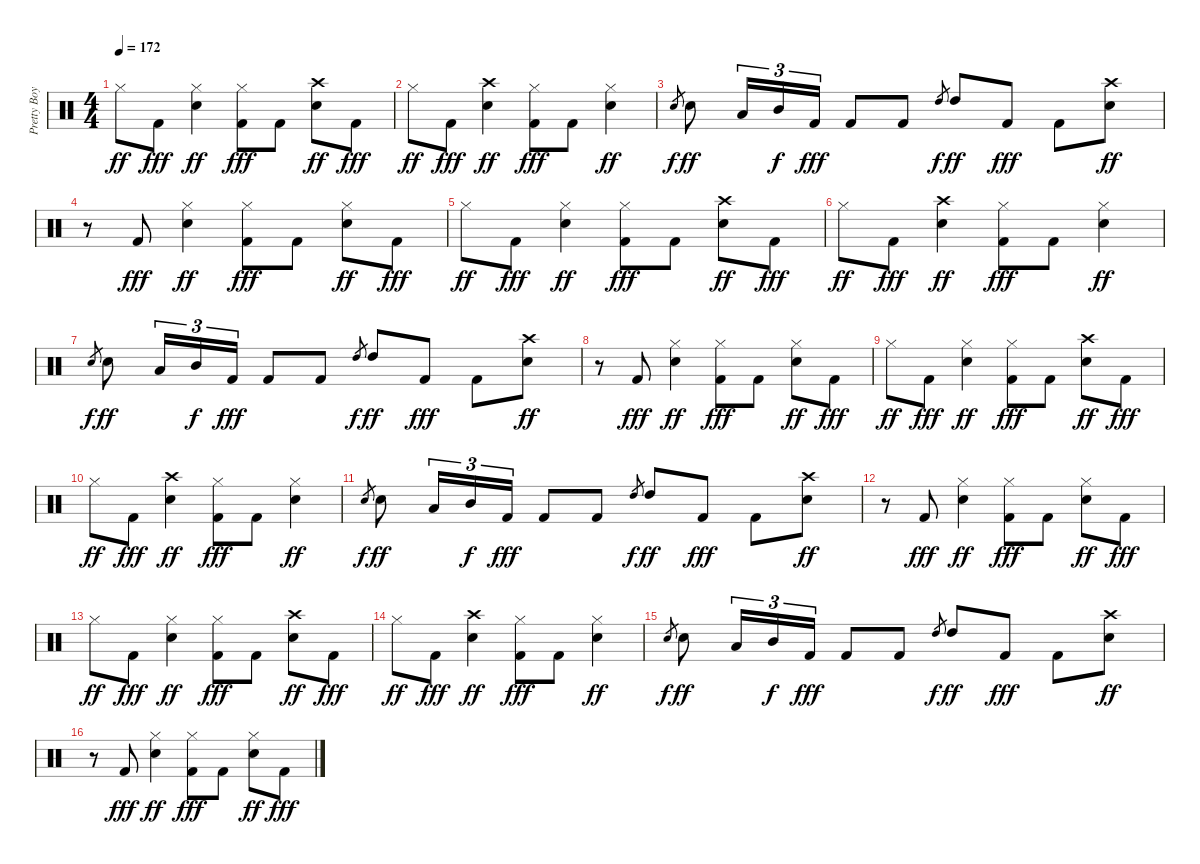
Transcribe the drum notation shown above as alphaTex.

\track ("Pretty Boy Geoff (Lars Drums)" "Pretty Boy") {instrument percussion}
\staff {score}
\articulation defaults
\ts (4 4)
\tempo 172
\clef neutral
\ks c "Hi-Hat (closed)".8{dy ff} "Kick (hit) 2".8{dy fff}
("Hi-Hat (closed)" "Snare (hit) 2").4{dy ff} ("Hi-Hat (closed)" "Kick (hit) 2").8{dy fff} "Kick (hit) 2".8 ("Crash high (hit)" "Snare (hit) 2").8{dy ff} "Kick (hit) 2".8{dy fff} |
"Hi-Hat (closed)".8{dy ff} "Kick (hit) 2".8{dy fff} ("Crash high (hit)" "Snare (hit) 2").4{dy ff} ("Hi-Hat (closed)" "Kick (hit) 2").8{dy fff} "Kick (hit) 2".8 ("Hi-Hat (closed)" "Snare (hit) 2").4{dy ff} |
"Snare (hit) 2"{sl}.8{gr dy f} "Snare (hit) 2".8{dy ff} "Low Tom (hit)".16{tu (3 2)} "Mid Tom (hit)".16{tu (3 2) dy f} "Kick (hit) 2".16{tu (3 2) dy fff} "Kick (hit) 2".8 "Kick (hit) 2".8 "High Tom (hit)"{sl}.8{gr dy f} "High Tom (hit)".8{dy ff} "Kick (hit) 2".8{dy fff} "Kick (hit) 2".8 ("Crash high (hit)" "Snare (hit) 2").8{dy ff} |
r.8 "Kick (hit) 2".8{dy fff} ("Hi-Hat (closed)" "Snare (hit) 2").4{dy ff} ("Hi-Hat (closed)" "Kick (hit) 2").8{dy fff} "Kick (hit) 2".8 ("Hi-Hat (closed)" "Snare (hit) 2").8{dy ff} "Kick (hit) 2".8{dy fff} |
"Hi-Hat (closed)".8{dy ff} "Kick (hit) 2".8{dy fff} ("Hi-Hat (closed)" "Snare (hit) 2").4{dy ff} ("Hi-Hat (closed)" "Kick (hit) 2").8{dy fff} "Kick (hit) 2".8 ("Crash high (hit)" "Snare (hit) 2").8{dy ff} "Kick (hit) 2".8{dy fff} |
"Hi-Hat (closed)".8{dy ff} "Kick (hit) 2".8{dy fff} ("Crash high (hit)" "Snare (hit) 2").4{dy ff} ("Hi-Hat (closed)" "Kick (hit) 2").8{dy fff} "Kick (hit) 2".8 ("Hi-Hat (closed)" "Snare (hit) 2").4{dy ff} |
"Snare (hit) 2"{sl}.8{gr dy f} "Snare (hit) 2".8{dy ff} "Low Tom (hit)".16{tu (3 2)} "Mid Tom (hit)".16{tu (3 2) dy f} "Kick (hit) 2".16{tu (3 2) dy fff} "Kick (hit) 2".8 "Kick (hit) 2".8 "High Tom (hit)"{sl}.8{gr dy f} "High Tom (hit)".8{dy ff} "Kick (hit) 2".8{dy fff} "Kick (hit) 2".8 ("Crash high (hit)" "Snare (hit) 2").8{dy ff} |
r.8 "Kick (hit) 2".8{dy fff} ("Hi-Hat (closed)" "Snare (hit) 2").4{dy ff} ("Hi-Hat (closed)" "Kick (hit) 2").8{dy fff} "Kick (hit) 2".8 ("Hi-Hat (closed)" "Snare (hit) 2").8{dy ff} "Kick (hit) 2".8{dy fff} |
"Hi-Hat (closed)".8{dy ff} "Kick (hit) 2".8{dy fff} ("Hi-Hat (closed)" "Snare (hit) 2").4{dy ff} ("Hi-Hat (closed)" "Kick (hit) 2").8{dy fff} "Kick (hit) 2".8 ("Crash high (hit)" "Snare (hit) 2").8{dy ff} "Kick (hit) 2".8{dy fff} |
"Hi-Hat (closed)".8{dy ff} "Kick (hit) 2".8{dy fff} ("Crash high (hit)" "Snare (hit) 2").4{dy ff} ("Hi-Hat (closed)" "Kick (hit) 2").8{dy fff} "Kick (hit) 2".8 ("Hi-Hat (closed)" "Snare (hit) 2").4{dy ff} |
"Snare (hit) 2"{sl}.8{gr dy f} "Snare (hit) 2".8{dy ff} "Low Tom (hit)".16{tu (3 2)} "Mid Tom (hit)".16{tu (3 2) dy f} "Kick (hit) 2".16{tu (3 2) dy fff} "Kick (hit) 2".8 "Kick (hit) 2".8 "High Tom (hit)"{sl}.8{gr dy f} "High Tom (hit)".8{dy ff} "Kick (hit) 2".8{dy fff} "Kick (hit) 2".8 ("Crash high (hit)" "Snare (hit) 2").8{dy ff} |
r.8 "Kick (hit) 2".8{dy fff} ("Hi-Hat (closed)" "Snare (hit) 2").4{dy ff} ("Hi-Hat (closed)" "Kick (hit) 2").8{dy fff} "Kick (hit) 2".8 ("Hi-Hat (closed)" "Snare (hit) 2").8{dy ff} "Kick (hit) 2".8{dy fff} |
"Hi-Hat (closed)".8{dy ff} "Kick (hit) 2".8{dy fff} ("Hi-Hat (closed)" "Snare (hit) 2").4{dy ff} ("Hi-Hat (closed)" "Kick (hit) 2").8{dy fff} "Kick (hit) 2".8 ("Crash high (hit)" "Snare (hit) 2").8{dy ff} "Kick (hit) 2".8{dy fff} |
"Hi-Hat (closed)".8{dy ff} "Kick (hit) 2".8{dy fff} ("Crash high (hit)" "Snare (hit) 2").4{dy ff} ("Hi-Hat (closed)" "Kick (hit) 2").8{dy fff} "Kick (hit) 2".8 ("Hi-Hat (closed)" "Snare (hit) 2").4{dy ff} |
"Snare (hit) 2"{sl}.8{gr dy f} "Snare (hit) 2".8{dy ff} "Low Tom (hit)".16{tu (3 2)} "Mid Tom (hit)".16{tu (3 2) dy f} "Kick (hit) 2".16{tu (3 2) dy fff} "Kick (hit) 2".8 "Kick (hit) 2".8 "High Tom (hit)"{sl}.8{gr dy f} "High Tom (hit)".8{dy ff} "Kick (hit) 2".8{dy fff} "Kick (hit) 2".8 ("Crash high (hit)" "Snare (hit) 2").8{dy ff} |
r.8 "Kick (hit) 2".8{dy fff} ("Hi-Hat (closed)" "Snare (hit) 2").4{dy ff} ("Hi-Hat (closed)" "Kick (hit) 2").8{dy fff} "Kick (hit) 2".8 ("Hi-Hat (closed)" "Snare (hit) 2").8{dy ff} "Kick (hit) 2".8{dy fff}
